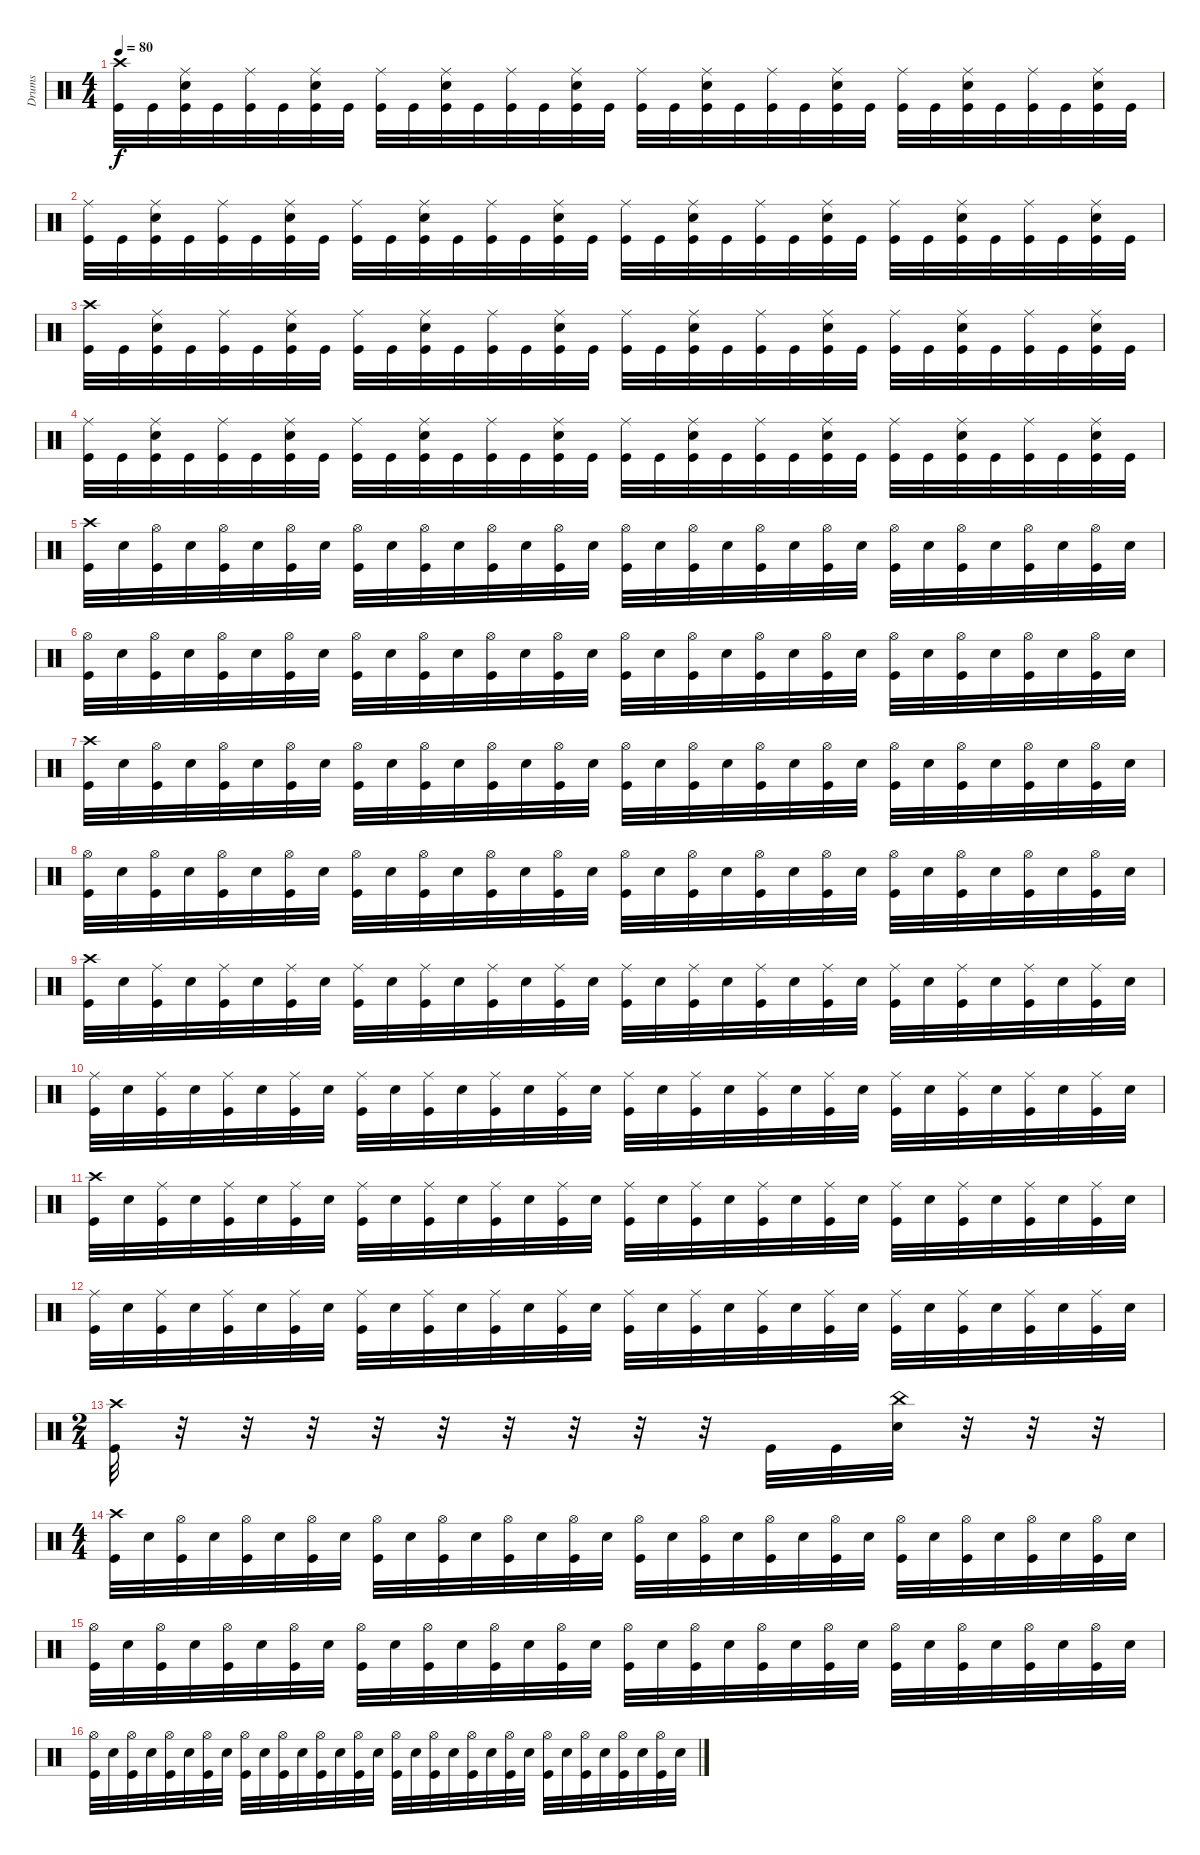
\track ("Drums" "Drums") {instrument percussion}
\staff {score}
\articulation defaults
\ts (4 4)
\tempo 80
\clef neutral
\ks c
("Crash high (hit)" "Kick (hit)").32{dy f} "Kick (hit)".32 ("Ride (middle)" "Snare (hit) 2" "Kick (hit)").32 "Kick (hit)".32 ("Ride (middle)" "Kick (hit)").32 "Kick (hit)".32 ("Ride (middle)" "Snare (hit) 2" "Kick (hit)").32 "Kick (hit)".32 ("Ride (middle)" "Kick (hit)").32 "Kick (hit)".32 ("Ride (middle)" "Snare (hit) 2" "Kick (hit)").32 "Kick (hit)".32 ("Ride (middle)" "Kick (hit)").32 "Kick (hit)".32 ("Ride (middle)" "Snare (hit) 2" "Kick (hit)").32 "Kick (hit)".32 ("Ride (middle)" "Kick (hit)").32 "Kick (hit)".32 ("Ride (middle)" "Snare (hit) 2" "Kick (hit)").32 "Kick (hit)".32 ("Ride (middle)" "Kick (hit)").32 "Kick (hit)".32 ("Ride (middle)" "Snare (hit) 2" "Kick (hit)").32 "Kick (hit)".32 ("Ride (middle)" "Kick (hit)").32 "Kick (hit)".32 ("Ride (middle)" "Snare (hit) 2" "Kick (hit)").32 "Kick (hit)".32 ("Ride (middle)" "Kick (hit)").32 "Kick (hit)".32 ("Ride (middle)" "Snare (hit) 2" "Kick (hit)").32 "Kick (hit)".32 |
("Ride (middle)" "Kick (hit)").32 "Kick (hit)".32 ("Ride (middle)" "Snare (hit) 2" "Kick (hit)").32 "Kick (hit)".32 ("Ride (middle)" "Kick (hit)").32 "Kick (hit)".32 ("Ride (middle)" "Snare (hit) 2" "Kick (hit)").32 "Kick (hit)".32 ("Ride (middle)" "Kick (hit)").32 "Kick (hit)".32 ("Ride (middle)" "Snare (hit) 2" "Kick (hit)").32 "Kick (hit)".32 ("Ride (middle)" "Kick (hit)").32 "Kick (hit)".32 ("Ride (middle)" "Snare (hit) 2" "Kick (hit)").32 "Kick (hit)".32 ("Ride (middle)" "Kick (hit)").32 "Kick (hit)".32 ("Ride (middle)" "Snare (hit) 2" "Kick (hit)").32 "Kick (hit)".32 ("Ride (middle)" "Kick (hit)").32 "Kick (hit)".32 ("Ride (middle)" "Snare (hit) 2" "Kick (hit)").32 "Kick (hit)".32 ("Ride (middle)" "Kick (hit)").32 "Kick (hit)".32 ("Ride (middle)" "Snare (hit) 2" "Kick (hit)").32 "Kick (hit)".32 ("Ride (middle)" "Kick (hit)").32 "Kick (hit)".32 ("Ride (middle)" "Snare (hit) 2" "Kick (hit)").32 "Kick (hit)".32 |
("Crash high (hit)" "Kick (hit)").32 "Kick (hit)".32 ("Ride (middle)" "Snare (hit) 2" "Kick (hit)").32 "Kick (hit)".32 ("Ride (middle)" "Kick (hit)").32 "Kick (hit)".32 ("Ride (middle)" "Snare (hit) 2" "Kick (hit)").32 "Kick (hit)".32 ("Ride (middle)" "Kick (hit)").32 "Kick (hit)".32 ("Ride (middle)" "Snare (hit) 2" "Kick (hit)").32 "Kick (hit)".32 ("Ride (middle)" "Kick (hit)").32 "Kick (hit)".32 ("Ride (middle)" "Snare (hit) 2" "Kick (hit)").32 "Kick (hit)".32 ("Ride (middle)" "Kick (hit)").32 "Kick (hit)".32 ("Ride (middle)" "Snare (hit) 2" "Kick (hit)").32 "Kick (hit)".32 ("Ride (middle)" "Kick (hit)").32 "Kick (hit)".32 ("Ride (middle)" "Snare (hit) 2" "Kick (hit)").32 "Kick (hit)".32 ("Ride (middle)" "Kick (hit)").32 "Kick (hit)".32 ("Ride (middle)" "Snare (hit) 2" "Kick (hit)").32 "Kick (hit)".32 ("Ride (middle)" "Kick (hit)").32 "Kick (hit)".32 ("Ride (middle)" "Snare (hit) 2" "Kick (hit)").32 "Kick (hit)".32 |
("Ride (middle)" "Kick (hit)").32 "Kick (hit)".32 ("Ride (middle)" "Snare (hit) 2" "Kick (hit)").32 "Kick (hit)".32 ("Ride (middle)" "Kick (hit)").32 "Kick (hit)".32 ("Ride (middle)" "Snare (hit) 2" "Kick (hit)").32 "Kick (hit)".32 ("Ride (middle)" "Kick (hit)").32 "Kick (hit)".32 ("Ride (middle)" "Snare (hit) 2" "Kick (hit)").32 "Kick (hit)".32 ("Ride (middle)" "Kick (hit)").32 "Kick (hit)".32 ("Ride (middle)" "Snare (hit) 2" "Kick (hit)").32 "Kick (hit)".32 ("Ride (middle)" "Kick (hit)").32 "Kick (hit)".32 ("Ride (middle)" "Snare (hit) 2" "Kick (hit)").32 "Kick (hit)".32 ("Ride (middle)" "Kick (hit)").32 "Kick (hit)".32 ("Ride (middle)" "Snare (hit) 2" "Kick (hit)").32 "Kick (hit)".32 ("Ride (middle)" "Kick (hit)").32 "Kick (hit)".32 ("Ride (middle)" "Snare (hit) 2" "Kick (hit)").32 "Kick (hit)".32 ("Ride (middle)" "Kick (hit)").32 "Kick (hit)".32 ("Ride (middle)" "Snare (hit) 2" "Kick (hit)").32 "Kick (hit)".32 |
("Crash high (hit)" "Kick (hit)").32 "Snare (hit) 2".32 ("Hi-Hat (open)" "Kick (hit)").32 "Snare (hit) 2".32 ("Hi-Hat (open)" "Kick (hit)").32 "Snare (hit) 2".32 ("Hi-Hat (open)" "Kick (hit)").32 "Snare (hit) 2".32 ("Hi-Hat (open)" "Kick (hit)").32 "Snare (hit) 2".32 ("Hi-Hat (open)" "Kick (hit)").32 "Snare (hit) 2".32 ("Hi-Hat (open)" "Kick (hit)").32 "Snare (hit) 2".32 ("Hi-Hat (open)" "Kick (hit)").32 "Snare (hit) 2".32 ("Hi-Hat (open)" "Kick (hit)").32 "Snare (hit) 2".32 ("Hi-Hat (open)" "Kick (hit)").32 "Snare (hit) 2".32 ("Hi-Hat (open)" "Kick (hit)").32 "Snare (hit) 2".32 ("Hi-Hat (open)" "Kick (hit)").32 "Snare (hit) 2".32 ("Hi-Hat (open)" "Kick (hit)").32 "Snare (hit) 2".32 ("Hi-Hat (open)" "Kick (hit)").32 "Snare (hit) 2".32 ("Hi-Hat (open)" "Kick (hit)").32 "Snare (hit) 2".32 ("Hi-Hat (open)" "Kick (hit)").32 "Snare (hit) 2".32 |
("Hi-Hat (open)" "Kick (hit)").32 "Snare (hit) 2".32 ("Hi-Hat (open)" "Kick (hit)").32 "Snare (hit) 2".32 ("Hi-Hat (open)" "Kick (hit)").32 "Snare (hit) 2".32 ("Hi-Hat (open)" "Kick (hit)").32 "Snare (hit) 2".32 ("Hi-Hat (open)" "Kick (hit)").32 "Snare (hit) 2".32 ("Hi-Hat (open)" "Kick (hit)").32 "Snare (hit) 2".32 ("Hi-Hat (open)" "Kick (hit)").32 "Snare (hit) 2".32 ("Hi-Hat (open)" "Kick (hit)").32 "Snare (hit) 2".32 ("Hi-Hat (open)" "Kick (hit)").32 "Snare (hit) 2".32 ("Hi-Hat (open)" "Kick (hit)").32 "Snare (hit) 2".32 ("Hi-Hat (open)" "Kick (hit)").32 "Snare (hit) 2".32 ("Hi-Hat (open)" "Kick (hit)").32 "Snare (hit) 2".32 ("Hi-Hat (open)" "Kick (hit)").32 "Snare (hit) 2".32 ("Hi-Hat (open)" "Kick (hit)").32 "Snare (hit) 2".32 ("Hi-Hat (open)" "Kick (hit)").32 "Snare (hit) 2".32 ("Hi-Hat (open)" "Kick (hit)").32 "Snare (hit) 2".32 |
("Crash high (hit)" "Kick (hit)").32 "Snare (hit) 2".32 ("Hi-Hat (open)" "Kick (hit)").32 "Snare (hit) 2".32 ("Hi-Hat (open)" "Kick (hit)").32 "Snare (hit) 2".32 ("Hi-Hat (open)" "Kick (hit)").32 "Snare (hit) 2".32 ("Hi-Hat (open)" "Kick (hit)").32 "Snare (hit) 2".32 ("Hi-Hat (open)" "Kick (hit)").32 "Snare (hit) 2".32 ("Hi-Hat (open)" "Kick (hit)").32 "Snare (hit) 2".32 ("Hi-Hat (open)" "Kick (hit)").32 "Snare (hit) 2".32 ("Hi-Hat (open)" "Kick (hit)").32 "Snare (hit) 2".32 ("Hi-Hat (open)" "Kick (hit)").32 "Snare (hit) 2".32 ("Hi-Hat (open)" "Kick (hit)").32 "Snare (hit) 2".32 ("Hi-Hat (open)" "Kick (hit)").32 "Snare (hit) 2".32 ("Hi-Hat (open)" "Kick (hit)").32 "Snare (hit) 2".32 ("Hi-Hat (open)" "Kick (hit)").32 "Snare (hit) 2".32 ("Hi-Hat (open)" "Kick (hit)").32 "Snare (hit) 2".32 ("Hi-Hat (open)" "Kick (hit)").32 "Snare (hit) 2".32 |
("Hi-Hat (open)" "Kick (hit)").32 "Snare (hit) 2".32 ("Hi-Hat (open)" "Kick (hit)").32 "Snare (hit) 2".32 ("Hi-Hat (open)" "Kick (hit)").32 "Snare (hit) 2".32 ("Hi-Hat (open)" "Kick (hit)").32 "Snare (hit) 2".32 ("Hi-Hat (open)" "Kick (hit)").32 "Snare (hit) 2".32 ("Hi-Hat (open)" "Kick (hit)").32 "Snare (hit) 2".32 ("Hi-Hat (open)" "Kick (hit)").32 "Snare (hit) 2".32 ("Hi-Hat (open)" "Kick (hit)").32 "Snare (hit) 2".32 ("Hi-Hat (open)" "Kick (hit)").32 "Snare (hit) 2".32 ("Hi-Hat (open)" "Kick (hit)").32 "Snare (hit) 2".32 ("Hi-Hat (open)" "Kick (hit)").32 "Snare (hit) 2".32 ("Hi-Hat (open)" "Kick (hit)").32 "Snare (hit) 2".32 ("Hi-Hat (open)" "Kick (hit)").32 "Snare (hit) 2".32 ("Hi-Hat (open)" "Kick (hit)").32 "Snare (hit) 2".32 ("Hi-Hat (open)" "Kick (hit)").32 "Snare (hit) 2".32 ("Hi-Hat (open)" "Kick (hit)").32 "Snare (hit) 2".32 |
("Crash high (hit)" "Kick (hit)").32 "Snare (hit) 2".32 ("Ride (middle)" "Kick (hit)").32 "Snare (hit) 2".32 ("Ride (middle)" "Kick (hit)").32 "Snare (hit) 2".32 ("Ride (middle)" "Kick (hit)").32 "Snare (hit) 2".32 ("Ride (middle)" "Kick (hit)").32 "Snare (hit) 2".32 ("Ride (middle)" "Kick (hit)").32 "Snare (hit) 2".32 ("Ride (middle)" "Kick (hit)").32 "Snare (hit) 2".32 ("Ride (middle)" "Kick (hit)").32 "Snare (hit) 2".32 ("Ride (middle)" "Kick (hit)").32 "Snare (hit) 2".32 ("Ride (middle)" "Kick (hit)").32 "Snare (hit) 2".32 ("Ride (middle)" "Kick (hit)").32 "Snare (hit) 2".32 ("Ride (middle)" "Kick (hit)").32 "Snare (hit) 2".32 ("Ride (middle)" "Kick (hit)").32 "Snare (hit) 2".32 ("Ride (middle)" "Kick (hit)").32 "Snare (hit) 2".32 ("Ride (middle)" "Kick (hit)").32 "Snare (hit) 2".32 ("Ride (middle)" "Kick (hit)").32 "Snare (hit) 2".32 |
("Ride (middle)" "Kick (hit)").32 "Snare (hit) 2".32 ("Ride (middle)" "Kick (hit)").32 "Snare (hit) 2".32 ("Ride (middle)" "Kick (hit)").32 "Snare (hit) 2".32 ("Ride (middle)" "Kick (hit)").32 "Snare (hit) 2".32 ("Ride (middle)" "Kick (hit)").32 "Snare (hit) 2".32 ("Ride (middle)" "Kick (hit)").32 "Snare (hit) 2".32 ("Ride (middle)" "Kick (hit)").32 "Snare (hit) 2".32 ("Ride (middle)" "Kick (hit)").32 "Snare (hit) 2".32 ("Ride (middle)" "Kick (hit)").32 "Snare (hit) 2".32 ("Ride (middle)" "Kick (hit)").32 "Snare (hit) 2".32 ("Ride (middle)" "Kick (hit)").32 "Snare (hit) 2".32 ("Ride (middle)" "Kick (hit)").32 "Snare (hit) 2".32 ("Ride (middle)" "Kick (hit)").32 "Snare (hit) 2".32 ("Ride (middle)" "Kick (hit)").32 "Snare (hit) 2".32 ("Ride (middle)" "Kick (hit)").32 "Snare (hit) 2".32 ("Ride (middle)" "Kick (hit)").32 "Snare (hit) 2".32 |
("Crash high (hit)" "Kick (hit)").32 "Snare (hit) 2".32 ("Ride (middle)" "Kick (hit)").32 "Snare (hit) 2".32 ("Ride (middle)" "Kick (hit)").32 "Snare (hit) 2".32 ("Ride (middle)" "Kick (hit)").32 "Snare (hit) 2".32 ("Ride (middle)" "Kick (hit)").32 "Snare (hit) 2".32 ("Ride (middle)" "Kick (hit)").32 "Snare (hit) 2".32 ("Ride (middle)" "Kick (hit)").32 "Snare (hit) 2".32 ("Ride (middle)" "Kick (hit)").32 "Snare (hit) 2".32 ("Ride (middle)" "Kick (hit)").32 "Snare (hit) 2".32 ("Ride (middle)" "Kick (hit)").32 "Snare (hit) 2".32 ("Ride (middle)" "Kick (hit)").32 "Snare (hit) 2".32 ("Ride (middle)" "Kick (hit)").32 "Snare (hit) 2".32 ("Ride (middle)" "Kick (hit)").32 "Snare (hit) 2".32 ("Ride (middle)" "Kick (hit)").32 "Snare (hit) 2".32 ("Ride (middle)" "Kick (hit)").32 "Snare (hit) 2".32 ("Ride (middle)" "Kick (hit)").32 "Snare (hit) 2".32 |
("Ride (middle)" "Kick (hit)").32 "Snare (hit) 2".32 ("Ride (middle)" "Kick (hit)").32 "Snare (hit) 2".32 ("Ride (middle)" "Kick (hit)").32 "Snare (hit) 2".32 ("Ride (middle)" "Kick (hit)").32 "Snare (hit) 2".32 ("Ride (middle)" "Kick (hit)").32 "Snare (hit) 2".32 ("Ride (middle)" "Kick (hit)").32 "Snare (hit) 2".32 ("Ride (middle)" "Kick (hit)").32 "Snare (hit) 2".32 ("Ride (middle)" "Kick (hit)").32 "Snare (hit) 2".32 ("Ride (middle)" "Kick (hit)").32 "Snare (hit) 2".32 ("Ride (middle)" "Kick (hit)").32 "Snare (hit) 2".32 ("Ride (middle)" "Kick (hit)").32 "Snare (hit) 2".32 ("Ride (middle)" "Kick (hit)").32 "Snare (hit) 2".32 ("Ride (middle)" "Kick (hit)").32 "Snare (hit) 2".32 ("Ride (middle)" "Kick (hit)").32 "Snare (hit) 2".32 ("Ride (middle)" "Kick (hit)").32 "Snare (hit) 2".32 ("Ride (middle)" "Kick (hit)").32 "Snare (hit) 2".32 |
\ts (2 4)
("Crash high (hit)" "Kick (hit)").32 r.32 r.32 r.32 r.32 r.32 r.32 r.32 r.32 r.32 "Kick (hit)".32 "Kick (hit)".32 ("China (hit)" "Snare (hit) 2").32 r.32 r.32 r.32 |
\ts (4 4)
("Crash high (hit)" "Kick (hit)").32 "Snare (hit) 2".32 ("Hi-Hat (open)" "Kick (hit)").32 "Snare (hit) 2".32 ("Hi-Hat (open)" "Kick (hit)").32 "Snare (hit) 2".32 ("Hi-Hat (open)" "Kick (hit)").32 "Snare (hit) 2".32 ("Hi-Hat (open)" "Kick (hit)").32 "Snare (hit) 2".32 ("Hi-Hat (open)" "Kick (hit)").32 "Snare (hit) 2".32 ("Hi-Hat (open)" "Kick (hit)").32 "Snare (hit) 2".32 ("Hi-Hat (open)" "Kick (hit)").32 "Snare (hit) 2".32 ("Hi-Hat (open)" "Kick (hit)").32 "Snare (hit) 2".32 ("Hi-Hat (open)" "Kick (hit)").32 "Snare (hit) 2".32 ("Hi-Hat (open)" "Kick (hit)").32 "Snare (hit) 2".32 ("Hi-Hat (open)" "Kick (hit)").32 "Snare (hit) 2".32 ("Hi-Hat (open)" "Kick (hit)").32 "Snare (hit) 2".32 ("Hi-Hat (open)" "Kick (hit)").32 "Snare (hit) 2".32 ("Hi-Hat (open)" "Kick (hit)").32 "Snare (hit) 2".32 ("Hi-Hat (open)" "Kick (hit)").32 "Snare (hit) 2".32 |
("Hi-Hat (open)" "Kick (hit)").32 "Snare (hit) 2".32 ("Hi-Hat (open)" "Kick (hit)").32 "Snare (hit) 2".32 ("Hi-Hat (open)" "Kick (hit)").32 "Snare (hit) 2".32 ("Hi-Hat (open)" "Kick (hit)").32 "Snare (hit) 2".32 ("Hi-Hat (open)" "Kick (hit)").32 "Snare (hit) 2".32 ("Hi-Hat (open)" "Kick (hit)").32 "Snare (hit) 2".32 ("Hi-Hat (open)" "Kick (hit)").32 "Snare (hit) 2".32 ("Hi-Hat (open)" "Kick (hit)").32 "Snare (hit) 2".32 ("Hi-Hat (open)" "Kick (hit)").32 "Snare (hit) 2".32 ("Hi-Hat (open)" "Kick (hit)").32 "Snare (hit) 2".32 ("Hi-Hat (open)" "Kick (hit)").32 "Snare (hit) 2".32 ("Hi-Hat (open)" "Kick (hit)").32 "Snare (hit) 2".32 ("Hi-Hat (open)" "Kick (hit)").32 "Snare (hit) 2".32 ("Hi-Hat (open)" "Kick (hit)").32 "Snare (hit) 2".32 ("Hi-Hat (open)" "Kick (hit)").32 "Snare (hit) 2".32 ("Hi-Hat (open)" "Kick (hit)").32 "Snare (hit) 2".32 |
("Hi-Hat (open)" "Kick (hit)").32 "Snare (hit) 2".32 ("Hi-Hat (open)" "Kick (hit)").32 "Snare (hit) 2".32 ("Hi-Hat (open)" "Kick (hit)").32 "Snare (hit) 2".32 ("Hi-Hat (open)" "Kick (hit)").32 "Snare (hit) 2".32 ("Hi-Hat (open)" "Kick (hit)").32 "Snare (hit) 2".32 ("Hi-Hat (open)" "Kick (hit)").32 "Snare (hit) 2".32 ("Hi-Hat (open)" "Kick (hit)").32 "Snare (hit) 2".32 ("Hi-Hat (open)" "Kick (hit)").32 "Snare (hit) 2".32 ("Hi-Hat (open)" "Kick (hit)").32 "Snare (hit) 2".32 ("Hi-Hat (open)" "Kick (hit)").32 "Snare (hit) 2".32 ("Hi-Hat (open)" "Kick (hit)").32 "Snare (hit) 2".32 ("Hi-Hat (open)" "Kick (hit)").32 "Snare (hit) 2".32 ("Hi-Hat (open)" "Kick (hit)").32 "Snare (hit) 2".32 ("Hi-Hat (open)" "Kick (hit)").32 "Snare (hit) 2".32 ("Hi-Hat (open)" "Kick (hit)").32 "Snare (hit) 2".32 ("Hi-Hat (open)" "Kick (hit)").32 "Snare (hit) 2".32
